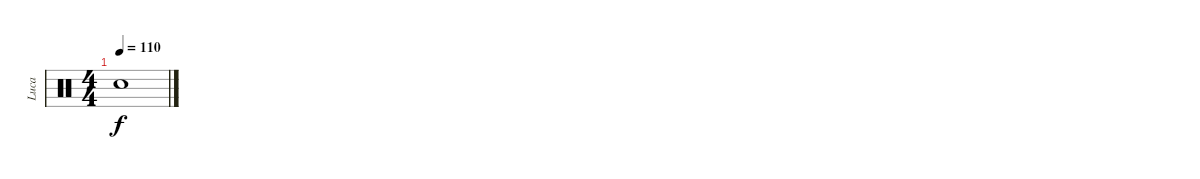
\track ("Luca" "Luca") {instrument percussion}
\staff {score}
\articulation defaults
\ts (4 4)
\tempo 110
\clef neutral
\ks c "Snare (hit)"{t}.1{dy f}
